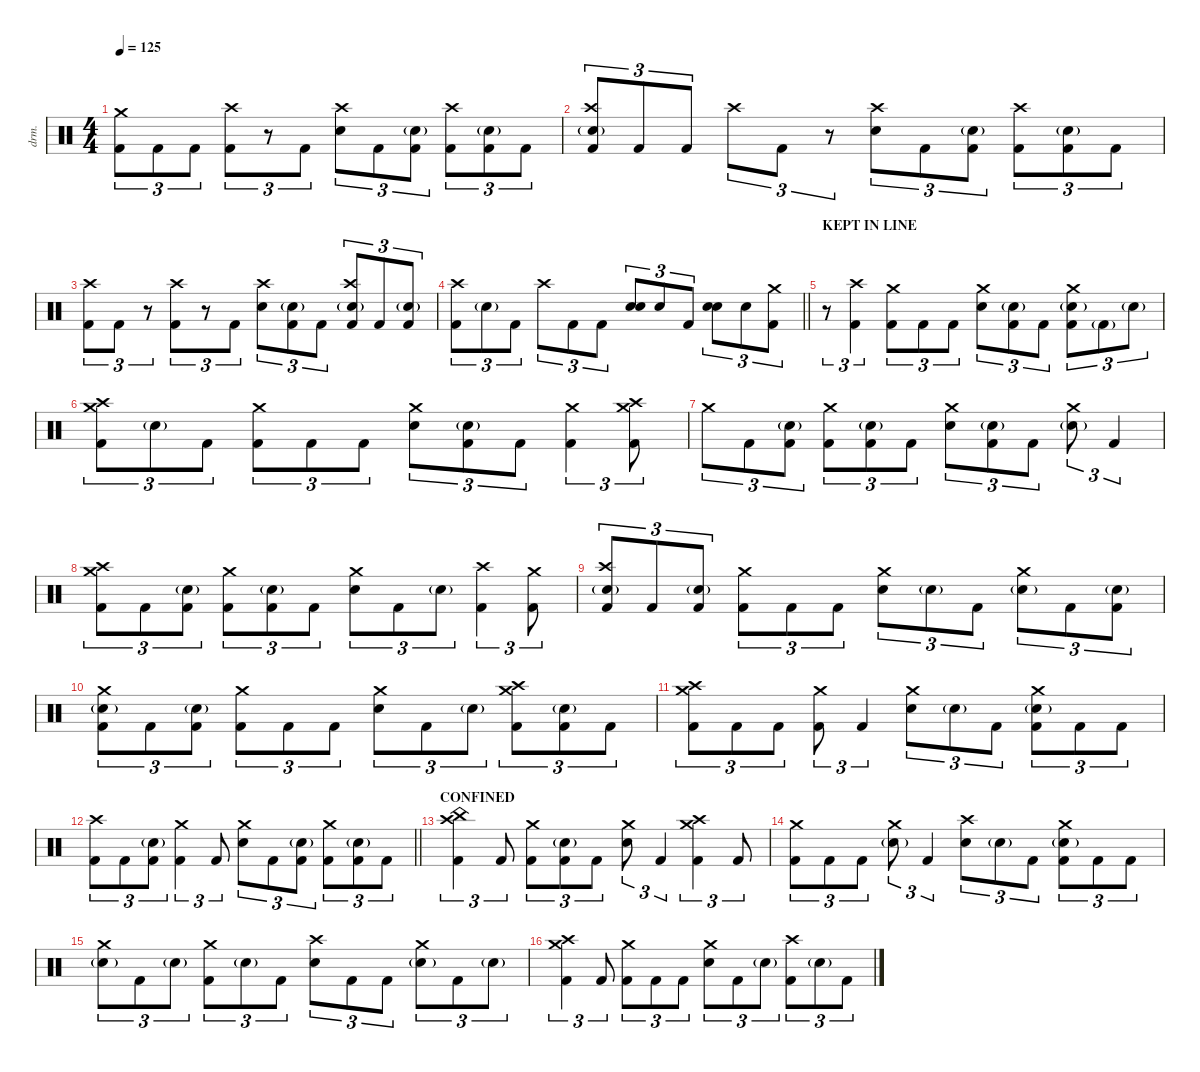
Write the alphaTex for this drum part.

\defaultSystemsLayout 4
\hideDynamics
\bracketExtendMode nobrackets
\track ("DRUMS (Thomas Haake)" "drm.") {instrument percussion}
\staff {score}
\articulation defaults
\ts (4 4)
\tempo 125
\clef neutral
\ks c
("Crash medium (hit)" "Kick (hit) 2").8{tu (3 2) dy f} "Kick (hit) 2".8{tu (3 2)} "Kick (hit) 2".8{tu (3 2)} ("Crash high (hit)" "Kick (hit) 2").8{tu (3 2)} r.8{tu (3 2)} "Kick (hit) 2".8{tu (3 2)} ("Crash high (hit)" "Snare (hit) 2").8{tu (3 2)} "Kick (hit) 2".8{tu (3 2)} ("Snare (hit) 2"{g} "Kick (hit) 2").8{tu (3 2)} ("Crash high (hit)" "Kick (hit) 2").8{tu (3 2)} ("Snare (hit) 2"{g} "Kick (hit) 2").8{tu (3 2)} "Kick (hit) 2".8{tu (3 2)} |
("Crash high (hit)" "Snare (hit) 2"{g} "Kick (hit) 2").8{tu (3 2)} "Kick (hit) 2".8{tu (3 2)} "Kick (hit) 2".8{tu (3 2)} "Crash high (hit)".8{tu (3 2)} "Kick (hit) 2".8{tu (3 2)} r.8{tu (3 2)} ("Crash high (hit)" "Snare (hit) 2").8{tu (3 2)} "Kick (hit) 2".8{tu (3 2)} ("Snare (hit) 2"{g} "Kick (hit) 2").8{tu (3 2)} ("Crash high (hit)" "Kick (hit) 2").8{tu (3 2)} ("Snare (hit) 2"{g} "Kick (hit) 2").8{tu (3 2)} "Kick (hit) 2".8{tu (3 2)} |
("Crash high (hit)" "Kick (hit) 2").8{tu (3 2)} "Kick (hit) 2".8{tu (3 2)} r.8{tu (3 2)} ("Crash high (hit)" "Kick (hit) 2").8{tu (3 2)} r.8{tu (3 2)} "Kick (hit) 2".8{tu (3 2)} ("Crash high (hit)" "Snare (hit) 2").8{tu (3 2)} ("Snare (hit) 2"{g} "Kick (hit) 2").8{tu (3 2)} "Kick (hit) 2".8{tu (3 2)} ("Crash high (hit)" "Snare (hit) 2"{g} "Kick (hit) 2").8{tu (3 2)} "Kick (hit) 2".8{tu (3 2)} ("Snare (hit) 2"{g} "Kick (hit) 2").8{tu (3 2)} |
\barLineRight lightlight
("Crash high (hit)" "Kick (hit) 2").8{tu (3 2)} "Snare (hit) 2"{g}.8{tu (3 2) dy p} "Kick (hit) 2".8{tu (3 2) dy f} "Crash high (hit)".8{tu (3 2)} "Kick (hit) 2".8{tu (3 2)} "Kick (hit) 2".8{tu (3 2)} ("Snare (hit) 2" "Snare (hit) 2").8{tu (3 2) dy mf} "Snare (hit) 2".8{tu (3 2)} "Kick (hit) 2".8{tu (3 2) dy f} ("Snare (hit) 2" "Snare (hit) 2").8{tu (3 2) dy mf} "Snare (hit) 2".8{tu (3 2)} ("Crash medium (hit)" "Kick (hit) 2").8{tu (3 2) dy f} |
\section ("" "KEPT IN LINE")
r.8{tu (3 2)} ("Crash high (hit)" "Kick (hit) 2").4{tu (3 2)} ("Crash medium (hit)" "Kick (hit) 2").8{tu (3 2)} "Kick (hit) 2".8{tu (3 2)} "Kick (hit) 2".8{tu (3 2)} ("Crash medium (hit)" "Snare (hit) 2").8{tu (3 2)} ("Snare (hit) 2"{g} "Kick (hit) 2").8{tu (3 2)} "Kick (hit) 2".8{tu (3 2)} ("Crash medium (hit)" "Snare (hit) 2"{g} "Kick (hit) 2").8{tu (3 2)} "Kick (hit) 2"{g}.8{tu (3 2) dy mf} "Snare (hit) 2"{g}.8{tu (3 2) dy p} |
("Crash high (hit)" "Crash medium (hit)" "Kick (hit) 2").8{tu (3 2) dy f} "Snare (hit) 2"{g}.8{tu (3 2) dy p} "Kick (hit) 2".8{tu (3 2) dy f} ("Crash medium (hit)" "Kick (hit) 2").8{tu (3 2)} "Kick (hit) 2".8{tu (3 2)} "Kick (hit) 2".8{tu (3 2)} ("Crash medium (hit)" "Snare (hit) 2").8{tu (3 2)} ("Snare (hit) 2"{g} "Kick (hit) 2").8{tu (3 2)} "Kick (hit) 2".8{tu (3 2)} ("Crash medium (hit)" "Kick (hit) 2").4{tu (3 2)} ("Crash medium (hit)" "Crash high (hit)" "Kick (hit) 2").8{tu (3 2) dy mp} |
"Crash medium (hit)".8{tu (3 2) dy mf} "Kick (hit) 2".8{tu (3 2) dy f} ("Snare (hit) 2"{g} "Kick (hit) 2").8{tu (3 2)} ("Crash medium (hit)" "Kick (hit) 2").8{tu (3 2)} ("Snare (hit) 2"{g} "Kick (hit) 2").8{tu (3 2)} "Kick (hit) 2".8{tu (3 2)} ("Crash medium (hit)" "Snare (hit) 2").8{tu (3 2)} ("Snare (hit) 2"{g} "Kick (hit) 2").8{tu (3 2)} "Kick (hit) 2".8{tu (3 2)} ("Crash medium (hit)" "Snare (hit) 2"{g}).8{tu (3 2)} "Kick (hit) 2".4{tu (3 2)} |
("Crash high (hit)" "Crash medium (hit)" "Kick (hit) 2").8{tu (3 2)} "Kick (hit) 2".8{tu (3 2)} ("Snare (hit) 2"{g} "Kick (hit) 2").8{tu (3 2)} ("Crash medium (hit)" "Kick (hit) 2").8{tu (3 2)} ("Snare (hit) 2"{g} "Kick (hit) 2").8{tu (3 2)} "Kick (hit) 2".8{tu (3 2)} ("Crash medium (hit)" "Snare (hit) 2").8{tu (3 2)} "Kick (hit) 2".8{tu (3 2)} "Snare (hit) 2"{g}.8{tu (3 2) dy p} ("Crash high (hit)" "Kick (hit) 2").4{tu (3 2) dy f} ("Crash medium (hit)" "Kick (hit) 2").8{tu (3 2)} |
("Crash high (hit)" "Snare (hit) 2"{g} "Kick (hit) 2").8{tu (3 2)} "Kick (hit) 2".8{tu (3 2)} ("Snare (hit) 2"{g} "Kick (hit) 2").8{tu (3 2)} ("Crash medium (hit)" "Kick (hit) 2").8{tu (3 2)} "Kick (hit) 2".8{tu (3 2)} "Kick (hit) 2".8{tu (3 2)} ("Crash medium (hit)" "Snare (hit) 2").8{tu (3 2)} "Snare (hit) 2"{g}.8{tu (3 2) dy p} "Kick (hit) 2".8{tu (3 2) dy f} ("Crash medium (hit)" "Snare (hit) 2"{g}).8{tu (3 2)} "Kick (hit) 2".8{tu (3 2)} ("Snare (hit) 2"{g} "Kick (hit) 2").8{tu (3 2)} |
("Crash medium (hit)" "Snare (hit) 2"{g} "Kick (hit) 2").8{tu (3 2)} "Kick (hit) 2".8{tu (3 2)} ("Snare (hit) 2"{g} "Kick (hit) 2").8{tu (3 2)} ("Crash medium (hit)" "Kick (hit) 2").8{tu (3 2)} "Kick (hit) 2".8{tu (3 2)} "Kick (hit) 2".8{tu (3 2)} ("Crash medium (hit)" "Snare (hit) 2").8{tu (3 2)} "Kick (hit) 2".8{tu (3 2)} "Snare (hit) 2"{g}.8{tu (3 2) dy p} ("Crash high (hit)" "Crash medium (hit)" "Kick (hit) 2").8{tu (3 2) dy f} ("Snare (hit) 2"{g} "Kick (hit) 2").8{tu (3 2)} "Kick (hit) 2".8{tu (3 2)} |
("Crash high (hit)" "Crash medium (hit)" "Kick (hit) 2").8{tu (3 2)} "Kick (hit) 2".8{tu (3 2)} "Kick (hit) 2".8{tu (3 2)} ("Crash medium (hit)" "Kick (hit) 2").8{tu (3 2)} "Kick (hit) 2".4{tu (3 2)} ("Crash medium (hit)" "Snare (hit) 2").8{tu (3 2)} "Snare (hit) 2"{g}.8{tu (3 2) dy p} "Kick (hit) 2".8{tu (3 2) dy f} ("Crash medium (hit)" "Snare (hit) 2"{g} "Kick (hit) 2").8{tu (3 2)} "Kick (hit) 2".8{tu (3 2)} "Kick (hit) 2".8{tu (3 2)} |
\barLineRight lightlight
("Crash high (hit)" "Kick (hit) 2").8{tu (3 2)} "Kick (hit) 2".8{tu (3 2)} ("Snare (hit) 2"{g} "Kick (hit) 2").8{tu (3 2)} ("Crash medium (hit)" "Kick (hit) 2").4{tu (3 2)} "Kick (hit) 2".8{tu (3 2)} ("Crash medium (hit)" "Snare (hit) 2").8{tu (3 2)} "Kick (hit) 2".8{tu (3 2)} ("Snare (hit) 2"{g} "Kick (hit) 2").8{tu (3 2)} ("Crash medium (hit)" "Kick (hit) 2").8{tu (3 2)} ("Snare (hit) 2"{g} "Kick (hit) 2").8{tu (3 2)} "Kick (hit) 2".8{tu (3 2)} |
\section ("" "CONFINED")
("China (hit)" "Crash high (hit)" "Kick (hit) 2").4{tu (3 2)} "Kick (hit) 2".8{tu (3 2)} ("Crash medium (hit)" "Kick (hit) 2").8{tu (3 2)} ("Snare (hit) 2"{g} "Kick (hit) 2").8{tu (3 2)} "Kick (hit) 2".8{tu (3 2)} ("Crash medium (hit)" "Snare (hit) 2").8{tu (3 2)} "Kick (hit) 2".4{tu (3 2)} ("Crash medium (hit)" "Crash high (hit)" "Kick (hit) 2").4{tu (3 2)} "Kick (hit) 2".8{tu (3 2)} |
("Crash medium (hit)" "Kick (hit) 2").8{tu (3 2)} "Kick (hit) 2".8{tu (3 2)} "Kick (hit) 2".8{tu (3 2)} ("Crash medium (hit)" "Snare (hit) 2"{g}).8{tu (3 2)} "Kick (hit) 2".4{tu (3 2)} ("Crash high (hit)" "Snare (hit) 2").8{tu (3 2)} "Snare (hit) 2"{g}.8{tu (3 2) dy p} "Kick (hit) 2".8{tu (3 2) dy f} ("Crash medium (hit)" "Snare (hit) 2"{g} "Kick (hit) 2").8{tu (3 2)} "Kick (hit) 2".8{tu (3 2)} "Kick (hit) 2".8{tu (3 2)} |
("Crash medium (hit)" "Snare (hit) 2"{g}).8{tu (3 2)} "Kick (hit) 2".8{tu (3 2)} "Snare (hit) 2"{g}.8{tu (3 2) dy p} ("Crash medium (hit)" "Kick (hit) 2").8{tu (3 2) dy f} "Snare (hit) 2"{g}.8{tu (3 2) dy p} "Kick (hit) 2".8{tu (3 2) dy f} ("Crash high (hit)" "Snare (hit) 2").8{tu (3 2)} "Kick (hit) 2".8{tu (3 2)} "Kick (hit) 2".8{tu (3 2)} ("Crash medium (hit)" "Snare (hit) 2"{g}).8{tu (3 2)} "Kick (hit) 2".8{tu (3 2)} "Snare (hit) 2"{g}.8{tu (3 2) dy p} |
("Crash medium (hit)" "Crash high (hit)" "Kick (hit) 2").4{tu (3 2) dy f} "Kick (hit) 2".8{tu (3 2)} ("Crash medium (hit)" "Kick (hit) 2").8{tu (3 2)} "Kick (hit) 2".8{tu (3 2)} "Kick (hit) 2".8{tu (3 2)} ("Crash medium (hit)" "Snare (hit) 2").8{tu (3 2)} "Kick (hit) 2".8{tu (3 2)} "Snare (hit) 2"{g}.8{tu (3 2) dy p} ("Crash high (hit)" "Kick (hit) 2").8{tu (3 2) dy f} "Snare (hit) 2"{g}.8{tu (3 2) dy p} "Kick (hit) 2".8{tu (3 2) dy f}
